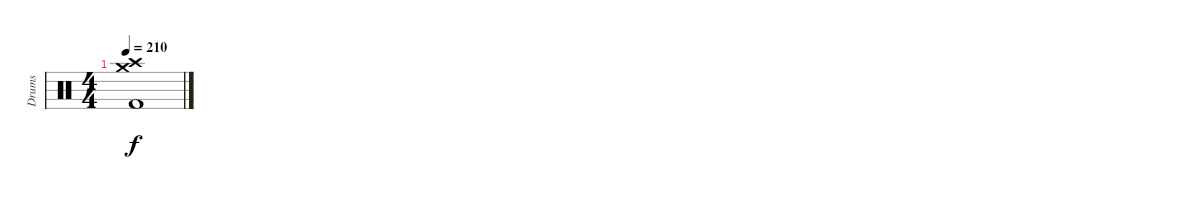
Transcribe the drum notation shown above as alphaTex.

\track ("Drums" "Drums") {instrument percussion}
\staff {score}
\articulation defaults
\ts (4 4)
\tempo 210
\clef neutral
\ks c
("Crash high (hit)" "Crash medium (hit)" "Kick (hit) 2").1{dy f}
